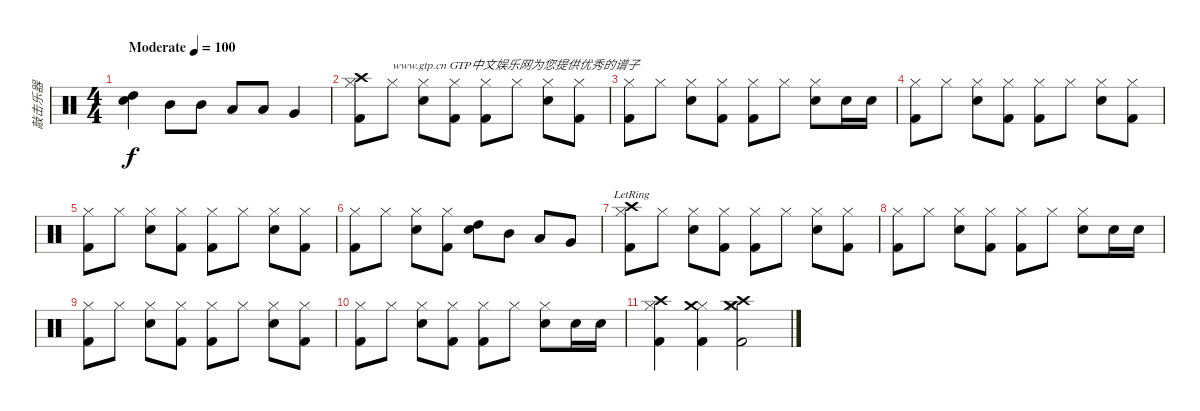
\track ("敲击乐器" "敲击乐器") {instrument percussion}
\staff {score}
\articulation defaults
\ts (4 4)
\tempo (100 "Moderate")
\clef neutral
\ks c
("High Tom (hit)" "Electric Snare (hit)").4{dy f} "Mid Tom (hit)".8 "Mid Tom (hit)".8 "Low Tom (hit)".8 "Low Tom (hit)".8 "Very Low Tom (hit)".4 |
("Hi-Hat (closed)" "Crash high (hit)" "Kick (hit) 2").8 "Hi-Hat (closed)".8{txt "www.gtp.cn GTP中文娱乐网为您提供优秀的谱子"} ("Hi-Hat (closed)" "Electric Snare (hit)").8 ("Hi-Hat (closed)" "Kick (hit) 2").8 ("Hi-Hat (closed)" "Kick (hit) 2").8 "Hi-Hat (closed)".8 ("Hi-Hat (closed)" "Electric Snare (hit)").8 ("Hi-Hat (closed)" "Kick (hit) 2").8 |
("Hi-Hat (closed)" "Kick (hit) 2").8 "Hi-Hat (closed)".8 ("Hi-Hat (closed)" "Electric Snare (hit)").8 ("Hi-Hat (closed)" "Kick (hit) 2").8 ("Hi-Hat (closed)" "Kick (hit) 2").8 "Hi-Hat (closed)".8 ("Hi-Hat (closed)" "Electric Snare (hit)").8 "Electric Snare (hit)".16 "Electric Snare (hit)".16 |
("Hi-Hat (closed)" "Kick (hit) 2").8 "Hi-Hat (closed)".8 ("Hi-Hat (closed)" "Electric Snare (hit)").8 ("Hi-Hat (closed)" "Kick (hit) 2").8 ("Hi-Hat (closed)" "Kick (hit) 2").8 "Hi-Hat (closed)".8 ("Hi-Hat (closed)" "Electric Snare (hit)").8 ("Hi-Hat (closed)" "Kick (hit) 2").8 |
("Hi-Hat (closed)" "Kick (hit) 2").8 "Hi-Hat (closed)".8 ("Hi-Hat (closed)" "Electric Snare (hit)").8 ("Hi-Hat (closed)" "Kick (hit) 2").8 ("Hi-Hat (closed)" "Kick (hit) 2").8 "Hi-Hat (closed)".8 ("Hi-Hat (closed)" "Electric Snare (hit)").8 ("Hi-Hat (closed)" "Kick (hit) 2").8 |
("Hi-Hat (closed)" "Kick (hit) 2").8 "Hi-Hat (closed)".8 ("Hi-Hat (closed)" "Electric Snare (hit)").8 ("Hi-Hat (closed)" "Kick (hit) 2").8 ("High Tom (hit)" "Electric Snare (hit)").8 "Mid Tom (hit)".8 "Low Tom (hit)".8 "Very Low Tom (hit)".8 |
("Hi-Hat (closed)" "Kick (hit) 2" "Crash high (hit)"{lr}).8 "Hi-Hat (closed)".8 ("Hi-Hat (closed)" "Electric Snare (hit)").8 ("Hi-Hat (closed)" "Kick (hit) 2").8 ("Hi-Hat (closed)" "Kick (hit) 2").8 "Hi-Hat (closed)".8 ("Hi-Hat (closed)" "Electric Snare (hit)").8 ("Hi-Hat (closed)" "Kick (hit) 2").8 |
("Hi-Hat (closed)" "Kick (hit) 2").8 "Hi-Hat (closed)".8 ("Hi-Hat (closed)" "Electric Snare (hit)").8 ("Hi-Hat (closed)" "Kick (hit) 2").8 ("Hi-Hat (closed)" "Kick (hit) 2").8 "Hi-Hat (closed)".8 ("Hi-Hat (closed)" "Electric Snare (hit)").8 "Electric Snare (hit)".16 "Electric Snare (hit)".16 |
("Hi-Hat (closed)" "Kick (hit) 2").8 "Hi-Hat (closed)".8 ("Hi-Hat (closed)" "Electric Snare (hit)").8 ("Hi-Hat (closed)" "Kick (hit) 2").8 ("Hi-Hat (closed)" "Kick (hit) 2").8 "Hi-Hat (closed)".8 ("Hi-Hat (closed)" "Electric Snare (hit)").8 ("Hi-Hat (closed)" "Kick (hit) 2").8 |
("Hi-Hat (closed)" "Kick (hit) 2").8 "Hi-Hat (closed)".8 ("Hi-Hat (closed)" "Electric Snare (hit)").8 ("Hi-Hat (closed)" "Kick (hit) 2").8 ("Hi-Hat (closed)" "Kick (hit) 2").8 "Hi-Hat (closed)".8 ("Hi-Hat (closed)" "Electric Snare (hit)").8 "Electric Snare (hit)".16 "Electric Snare (hit)".16 |
("Hi-Hat (closed)" "Kick (hit) 2" "Crash high (hit)").4 ("Hi-Hat (closed)" "Kick (hit) 2" "Crash medium (hit)").4 ("Hi-Hat (closed)" "Kick (hit) 2" "Crash high (hit)" "Crash medium (hit)").2
